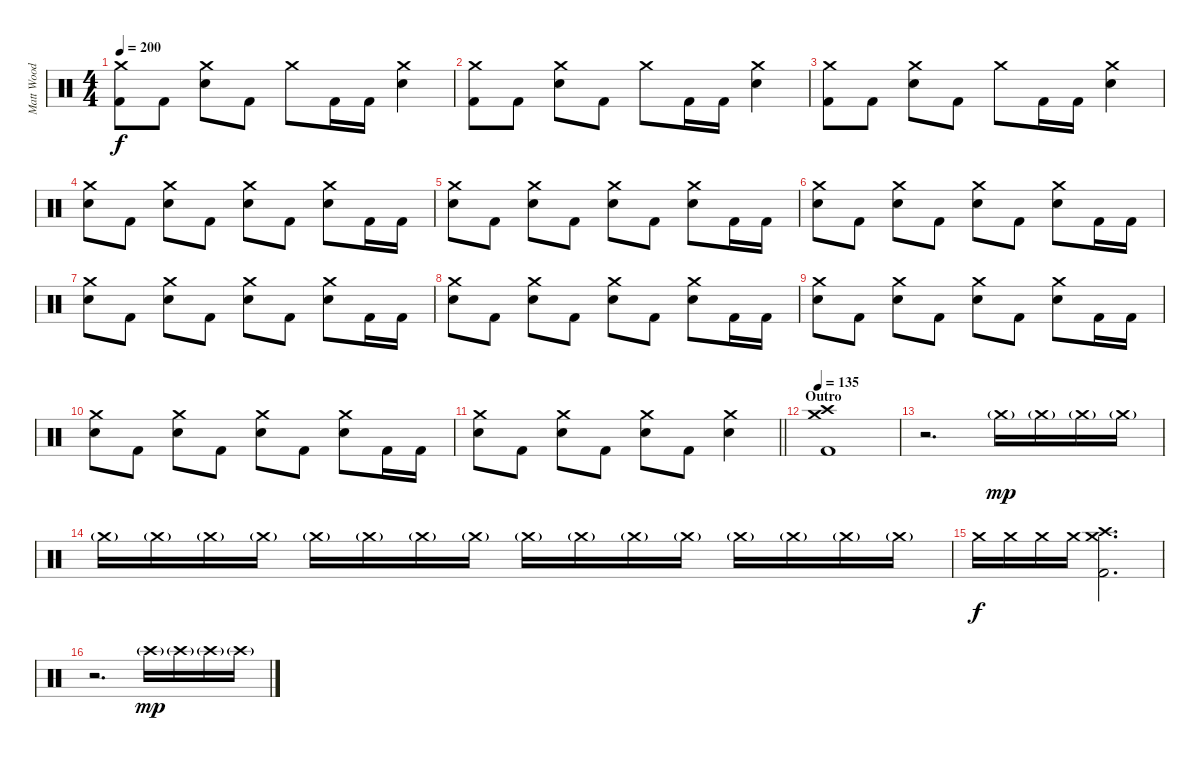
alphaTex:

\track ("Matt Wood" "Matt Wood") {instrument percussion}
\staff {score}
\articulation defaults
\ts (4 4)
\tempo 200
\clef neutral
\ks c
("Crash medium (hit)" "Kick (hit) 2").8{dy f} "Kick (hit) 2".8 ("Crash medium (hit)" "Snare (hit) 2").8 "Kick (hit) 2".8 "Crash medium (hit)".8 "Kick (hit) 2".16 "Kick (hit) 2".16 ("Crash medium (hit)" "Snare (hit) 2").4 |
("Crash medium (hit)" "Kick (hit) 2").8 "Kick (hit) 2".8 ("Crash medium (hit)" "Snare (hit) 2").8 "Kick (hit) 2".8 "Crash medium (hit)".8 "Kick (hit) 2".16 "Kick (hit) 2".16 ("Crash medium (hit)" "Snare (hit) 2").4 |
("Crash medium (hit)" "Kick (hit) 2").8 "Kick (hit) 2".8 ("Crash medium (hit)" "Snare (hit) 2").8 "Kick (hit) 2".8 "Crash medium (hit)".8 "Kick (hit) 2".16 "Kick (hit) 2".16 ("Crash medium (hit)" "Snare (hit) 2").4 |
("Crash medium (hit)" "Snare (hit) 2").8 "Kick (hit) 2".8 ("Crash medium (hit)" "Snare (hit) 2").8 "Kick (hit) 2".8 ("Crash medium (hit)" "Snare (hit) 2").8 "Kick (hit) 2".8 ("Crash medium (hit)" "Snare (hit) 2").8 "Kick (hit) 2".16 "Kick (hit) 2".16 |
("Crash medium (hit)" "Snare (hit) 2").8 "Kick (hit) 2".8 ("Crash medium (hit)" "Snare (hit) 2").8 "Kick (hit) 2".8 ("Crash medium (hit)" "Snare (hit) 2").8 "Kick (hit) 2".8 ("Crash medium (hit)" "Snare (hit) 2").8 "Kick (hit) 2".16 "Kick (hit) 2".16 |
("Crash medium (hit)" "Snare (hit) 2").8 "Kick (hit) 2".8 ("Crash medium (hit)" "Snare (hit) 2").8 "Kick (hit) 2".8 ("Crash medium (hit)" "Snare (hit) 2").8 "Kick (hit) 2".8 ("Crash medium (hit)" "Snare (hit) 2").8 "Kick (hit) 2".16 "Kick (hit) 2".16 |
("Crash medium (hit)" "Snare (hit) 2").8 "Kick (hit) 2".8 ("Crash medium (hit)" "Snare (hit) 2").8 "Kick (hit) 2".8 ("Crash medium (hit)" "Snare (hit) 2").8 "Kick (hit) 2".8 ("Crash medium (hit)" "Snare (hit) 2").8 "Kick (hit) 2".16 "Kick (hit) 2".16 |
("Crash medium (hit)" "Snare (hit) 2").8 "Kick (hit) 2".8 ("Crash medium (hit)" "Snare (hit) 2").8 "Kick (hit) 2".8 ("Crash medium (hit)" "Snare (hit) 2").8 "Kick (hit) 2".8 ("Crash medium (hit)" "Snare (hit) 2").8 "Kick (hit) 2".16 "Kick (hit) 2".16 |
("Crash medium (hit)" "Snare (hit) 2").8 "Kick (hit) 2".8 ("Crash medium (hit)" "Snare (hit) 2").8 "Kick (hit) 2".8 ("Crash medium (hit)" "Snare (hit) 2").8 "Kick (hit) 2".8 ("Crash medium (hit)" "Snare (hit) 2").8 "Kick (hit) 2".16 "Kick (hit) 2".16 |
("Crash medium (hit)" "Snare (hit) 2").8 "Kick (hit) 2".8 ("Crash medium (hit)" "Snare (hit) 2").8 "Kick (hit) 2".8 ("Crash medium (hit)" "Snare (hit) 2").8 "Kick (hit) 2".8 ("Crash medium (hit)" "Snare (hit) 2").8 "Kick (hit) 2".16 "Kick (hit) 2".16 |
\barLineRight lightlight
("Crash medium (hit)" "Snare (hit) 2").8 "Kick (hit) 2".8 ("Crash medium (hit)" "Snare (hit) 2").8 "Kick (hit) 2".8 ("Crash medium (hit)" "Snare (hit) 2").8 "Kick (hit) 2".8 ("Crash medium (hit)" "Snare (hit) 2").4 |
\section ("" "Outro")
\tempo 135
("Crash medium (hit)" "Crash high (hit)" "Kick (hit) 2").1 |
r.2{d} "Crash medium (hit)"{g}.16{dy mp} "Crash medium (hit)"{g}.16 "Crash medium (hit)"{g}.16 "Crash medium (hit)"{g}.16 |
"Crash medium (hit)"{g}.16 "Crash medium (hit)"{g}.16 "Crash medium (hit)"{g}.16 "Crash medium (hit)"{g}.16 "Crash medium (hit)"{g}.16 "Crash medium (hit)"{g}.16 "Crash medium (hit)"{g}.16 "Crash medium (hit)"{g}.16 "Crash medium (hit)"{g}.16 "Crash medium (hit)"{g}.16 "Crash medium (hit)"{g}.16 "Crash medium (hit)"{g}.16 "Crash medium (hit)"{g}.16 "Crash medium (hit)"{g}.16 "Crash medium (hit)"{g}.16 "Crash medium (hit)"{g}.16 |
"Crash medium (hit)".16{dy f} "Crash medium (hit)".16 "Crash medium (hit)".16 "Crash medium (hit)".16 ("Crash medium (hit)" "Crash high (hit)" "Kick (hit) 2").2{d} |
r.2{d} "Crash high (hit)"{g}.16{dy mp} "Crash high (hit)"{g}.16 "Crash high (hit)"{g}.16 "Crash high (hit)"{g}.16
